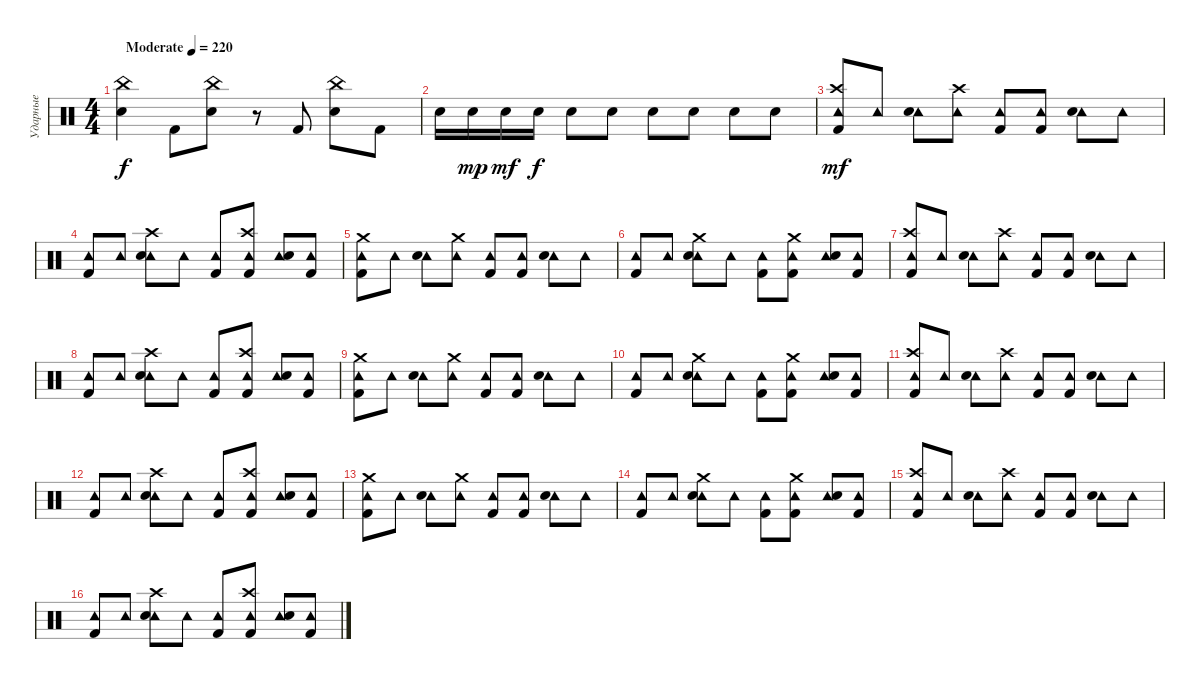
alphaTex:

\track ("Ударные" "Ударные") {instrument percussion}
\staff {score}
\articulation defaults
\ts (4 4)
\tempo (220 "Moderate")
\clef neutral
\ks c
("China (hit)" "Electric Snare (hit)").4{dy f} "Kick (hit) 2".8 ("China (hit)" "Electric Snare (hit)").8 r.8 "Kick (hit) 2".8 ("China (hit)" "Electric Snare (hit)").8 "Kick (hit) 2".8 |
"Electric Snare (hit)".16 "Electric Snare (hit)".16{dy mp} "Electric Snare (hit)".16{dy mf} "Electric Snare (hit)".16{dy f} "Electric Snare (hit)".8 "Electric Snare (hit)".8 "Electric Snare (hit)".8 "Electric Snare (hit)".8 "Electric Snare (hit)".8 "Electric Snare (hit)".8 |
("Crash high (hit)" "Tambourine (hit)" "Kick (hit) 2").8{dy mf} "Tambourine (hit)".8 ("Tambourine (hit)" "Electric Snare (hit)").8 ("Crash high (hit)" "Tambourine (hit)").8 ("Tambourine (hit)" "Kick (hit) 2").8 ("Tambourine (hit)" "Kick (hit) 2").8 ("Tambourine (hit)" "Electric Snare (hit)").8 "Tambourine (hit)".8 |
("Tambourine (hit)" "Kick (hit) 2").8 "Tambourine (hit)".8 ("Crash high (hit)" "Tambourine (hit)" "Electric Snare (hit)").8 "Tambourine (hit)".8 ("Tambourine (hit)" "Kick (hit) 2").8 ("Crash high (hit)" "Tambourine (hit)" "Kick (hit) 2").8 ("Tambourine (hit)" "Electric Snare (hit)").8 ("Tambourine (hit)" "Kick (hit) 2").8 |
("Crash medium (hit)" "Tambourine (hit)" "Kick (hit) 2").8 "Tambourine (hit)".8 ("Tambourine (hit)" "Electric Snare (hit)").8 ("Crash medium (hit)" "Tambourine (hit)").8 ("Tambourine (hit)" "Kick (hit) 2").8 ("Tambourine (hit)" "Kick (hit) 2").8 ("Tambourine (hit)" "Electric Snare (hit)").8 "Tambourine (hit)".8 |
("Tambourine (hit)" "Kick (hit) 2").8 "Tambourine (hit)".8 ("Crash medium (hit)" "Tambourine (hit)" "Electric Snare (hit)").8 "Tambourine (hit)".8 ("Tambourine (hit)" "Kick (hit) 2").8 ("Crash medium (hit)" "Tambourine (hit)" "Kick (hit) 2").8 ("Tambourine (hit)" "Electric Snare (hit)").8 ("Tambourine (hit)" "Kick (hit) 2").8 |
("Crash high (hit)" "Tambourine (hit)" "Kick (hit) 2").8 "Tambourine (hit)".8 ("Tambourine (hit)" "Electric Snare (hit)").8 ("Crash high (hit)" "Tambourine (hit)").8 ("Tambourine (hit)" "Kick (hit) 2").8 ("Tambourine (hit)" "Kick (hit) 2").8 ("Tambourine (hit)" "Electric Snare (hit)").8 "Tambourine (hit)".8 |
("Tambourine (hit)" "Kick (hit) 2").8 "Tambourine (hit)".8 ("Crash high (hit)" "Tambourine (hit)" "Electric Snare (hit)").8 "Tambourine (hit)".8 ("Tambourine (hit)" "Kick (hit) 2").8 ("Crash high (hit)" "Tambourine (hit)" "Kick (hit) 2").8 ("Tambourine (hit)" "Electric Snare (hit)").8 ("Tambourine (hit)" "Kick (hit) 2").8 |
("Crash medium (hit)" "Tambourine (hit)" "Kick (hit) 2").8 "Tambourine (hit)".8 ("Tambourine (hit)" "Electric Snare (hit)").8 ("Crash medium (hit)" "Tambourine (hit)").8 ("Tambourine (hit)" "Kick (hit) 2").8 ("Tambourine (hit)" "Kick (hit) 2").8 ("Tambourine (hit)" "Electric Snare (hit)").8 "Tambourine (hit)".8 |
("Tambourine (hit)" "Kick (hit) 2").8 "Tambourine (hit)".8 ("Crash medium (hit)" "Tambourine (hit)" "Electric Snare (hit)").8 "Tambourine (hit)".8 ("Tambourine (hit)" "Kick (hit) 2").8 ("Crash medium (hit)" "Tambourine (hit)" "Kick (hit) 2").8 ("Tambourine (hit)" "Electric Snare (hit)").8 ("Tambourine (hit)" "Kick (hit) 2").8 |
("Crash high (hit)" "Tambourine (hit)" "Kick (hit) 2").8 "Tambourine (hit)".8 ("Tambourine (hit)" "Electric Snare (hit)").8 ("Crash high (hit)" "Tambourine (hit)").8 ("Tambourine (hit)" "Kick (hit) 2").8 ("Tambourine (hit)" "Kick (hit) 2").8 ("Tambourine (hit)" "Electric Snare (hit)").8 "Tambourine (hit)".8 |
("Tambourine (hit)" "Kick (hit) 2").8 "Tambourine (hit)".8 ("Crash high (hit)" "Tambourine (hit)" "Electric Snare (hit)").8 "Tambourine (hit)".8 ("Tambourine (hit)" "Kick (hit) 2").8 ("Crash high (hit)" "Tambourine (hit)" "Kick (hit) 2").8 ("Tambourine (hit)" "Electric Snare (hit)").8 ("Tambourine (hit)" "Kick (hit) 2").8 |
("Crash medium (hit)" "Tambourine (hit)" "Kick (hit) 2").8 "Tambourine (hit)".8 ("Tambourine (hit)" "Electric Snare (hit)").8 ("Crash medium (hit)" "Tambourine (hit)").8 ("Tambourine (hit)" "Kick (hit) 2").8 ("Tambourine (hit)" "Kick (hit) 2").8 ("Tambourine (hit)" "Electric Snare (hit)").8 "Tambourine (hit)".8 |
("Tambourine (hit)" "Kick (hit) 2").8 "Tambourine (hit)".8 ("Crash medium (hit)" "Tambourine (hit)" "Electric Snare (hit)").8 "Tambourine (hit)".8 ("Tambourine (hit)" "Kick (hit) 2").8 ("Crash medium (hit)" "Tambourine (hit)" "Kick (hit) 2").8 ("Tambourine (hit)" "Electric Snare (hit)").8 ("Tambourine (hit)" "Kick (hit) 2").8 |
("Crash high (hit)" "Tambourine (hit)" "Kick (hit) 2").8 "Tambourine (hit)".8 ("Tambourine (hit)" "Electric Snare (hit)").8 ("Crash high (hit)" "Tambourine (hit)").8 ("Tambourine (hit)" "Kick (hit) 2").8 ("Tambourine (hit)" "Kick (hit) 2").8 ("Tambourine (hit)" "Electric Snare (hit)").8 "Tambourine (hit)".8 |
("Tambourine (hit)" "Kick (hit) 2").8 "Tambourine (hit)".8 ("Crash high (hit)" "Tambourine (hit)" "Electric Snare (hit)").8 "Tambourine (hit)".8 ("Tambourine (hit)" "Kick (hit) 2").8 ("Crash high (hit)" "Tambourine (hit)" "Kick (hit) 2").8 ("Tambourine (hit)" "Electric Snare (hit)").8 ("Tambourine (hit)" "Kick (hit) 2").8
